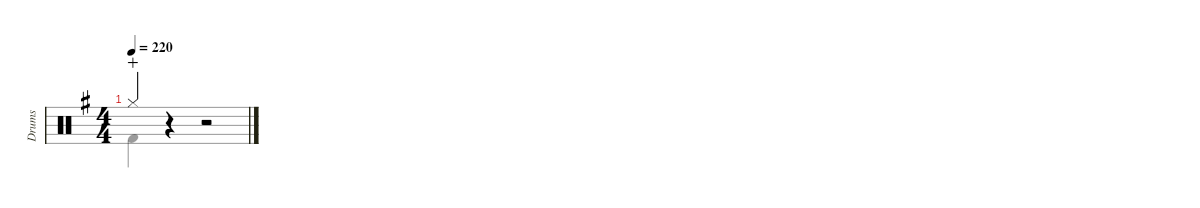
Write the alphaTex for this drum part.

\hideDynamics
\bracketExtendMode nobrackets
\multiBarRest
\otherSystemsTrackNameOrientation horizontal
\track ("Drums" "Drums") {defaultSystemsLayout 4 multiBarRest instrument percussion}
\staff {score}
\articulation defaults
\voice
\ts (4 4)
\tempo 220
\clef neutral
\scale
0.98289
\ks g "Hi-Hat (closed)"{acc forcenatural}.4{dy mp wahc beam Up}
r.4{beam Up} r.2{beam Up}
\voice
\clef neutral
\ottava regular
\simile none
\scale
0.98289
\ks g "Kick (hit) 2"{acc forcenatural}.4{dy f beam Down}
r.4{beam Down} r.2{beam Down}
